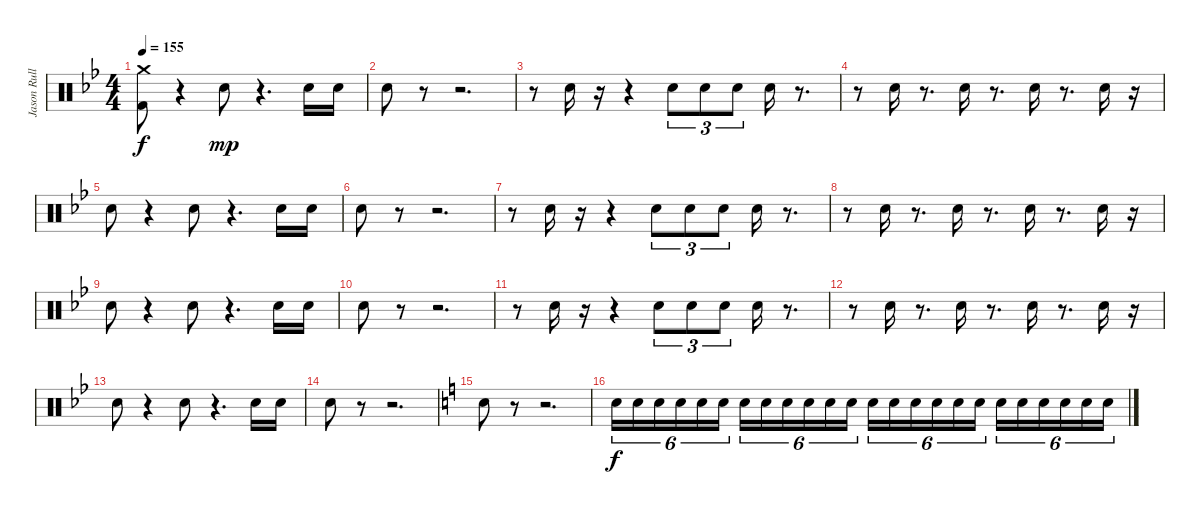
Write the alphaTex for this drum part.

\track ("Jason Rullo (drums)" "Jason Rull") {instrument percussion}
\staff {score}
\articulation defaults
\ts (4 4)
\tempo 155
\clef neutral
\ks gminor
("Crash medium (hit)" "Kick (hit) 2").8{dy f} r.4 "Electric Snare (hit)".8{dy mp} r.4{d} "Electric Snare (hit)".16 "Electric Snare (hit)".16 |
"Electric Snare (hit)".8 r.8 r.2{d} |
r.8 "Electric Snare (hit)".16 r.16 r.4 "Electric Snare (hit)".8{tu (3 2)} "Electric Snare (hit)".8{tu (3 2)} "Electric Snare (hit)".8{tu (3 2)} "Electric Snare (hit)".16 r.8{d} |
r.8 "Electric Snare (hit)".16 r.8{d} "Electric Snare (hit)".16 r.8{d} "Electric Snare (hit)".16 r.8{d} "Electric Snare (hit)".16 r.16 |
"Electric Snare (hit)".8 r.4 "Electric Snare (hit)".8 r.4{d} "Electric Snare (hit)".16 "Electric Snare (hit)".16 |
"Electric Snare (hit)".8 r.8 r.2{d} |
r.8 "Electric Snare (hit)".16 r.16 r.4 "Electric Snare (hit)".8{tu (3 2)} "Electric Snare (hit)".8{tu (3 2)} "Electric Snare (hit)".8{tu (3 2)} "Electric Snare (hit)".16 r.8{d} |
r.8 "Electric Snare (hit)".16 r.8{d} "Electric Snare (hit)".16 r.8{d} "Electric Snare (hit)".16 r.8{d} "Electric Snare (hit)".16 r.16 |
"Electric Snare (hit)".8 r.4 "Electric Snare (hit)".8 r.4{d} "Electric Snare (hit)".16 "Electric Snare (hit)".16 |
"Electric Snare (hit)".8 r.8 r.2{d} |
r.8 "Electric Snare (hit)".16 r.16 r.4 "Electric Snare (hit)".8{tu (3 2)} "Electric Snare (hit)".8{tu (3 2)} "Electric Snare (hit)".8{tu (3 2)} "Electric Snare (hit)".16 r.8{d} |
r.8 "Electric Snare (hit)".16 r.8{d} "Electric Snare (hit)".16 r.8{d} "Electric Snare (hit)".16 r.8{d} "Electric Snare (hit)".16 r.16 |
"Electric Snare (hit)".8 r.4 "Electric Snare (hit)".8 r.4{d} "Electric Snare (hit)".16 "Electric Snare (hit)".16 |
"Electric Snare (hit)".8 r.8 r.2{d} |
\ks aminor "Electric Snare (hit)".8
r.8 r.2{d} |
"Electric Snare (hit)".16{tu (6 4) dy f volume 0} "Electric Snare (hit)".16{tu (6 4) volume 0} "Electric Snare (hit)".16{tu (6 4) volume 0} "Electric Snare (hit)".16{tu (6 4) volume 1} "Electric Snare (hit)".16{tu (6 4) volume 1} "Electric Snare (hit)".16{tu (6 4) volume 1} "Electric Snare (hit)".16{tu (6 4) volume 1} "Electric Snare (hit)".16{tu (6 4) volume 1} "Electric Snare (hit)".16{tu (6 4) volume 2} "Electric Snare (hit)".16{tu (6 4) volume 2} "Electric Snare (hit)".16{tu (6 4) volume 2} "Electric Snare (hit)".16{tu (6 4) volume 2} "Electric Snare (hit)".16{tu (6 4) volume 2} "Electric Snare (hit)".16{tu (6 4) volume 3} "Electric Snare (hit)".16{tu (6 4) volume 3} "Electric Snare (hit)".16{tu (6 4) volume 3} "Electric Snare (hit)".16{tu (6 4) volume 3} "Electric Snare (hit)".16{tu (6 4) volume 4} "Electric Snare (hit)".16{tu (6 4) volume 4} "Electric Snare (hit)".16{tu (6 4) volume 4} "Electric Snare (hit)".16{tu (6 4) volume 4} "Electric Snare (hit)".16{tu (6 4) volume 4} "Electric Snare (hit)".16{tu (6 4) volume 4} "Electric Snare (hit)".16{tu (6 4) volume 5}
